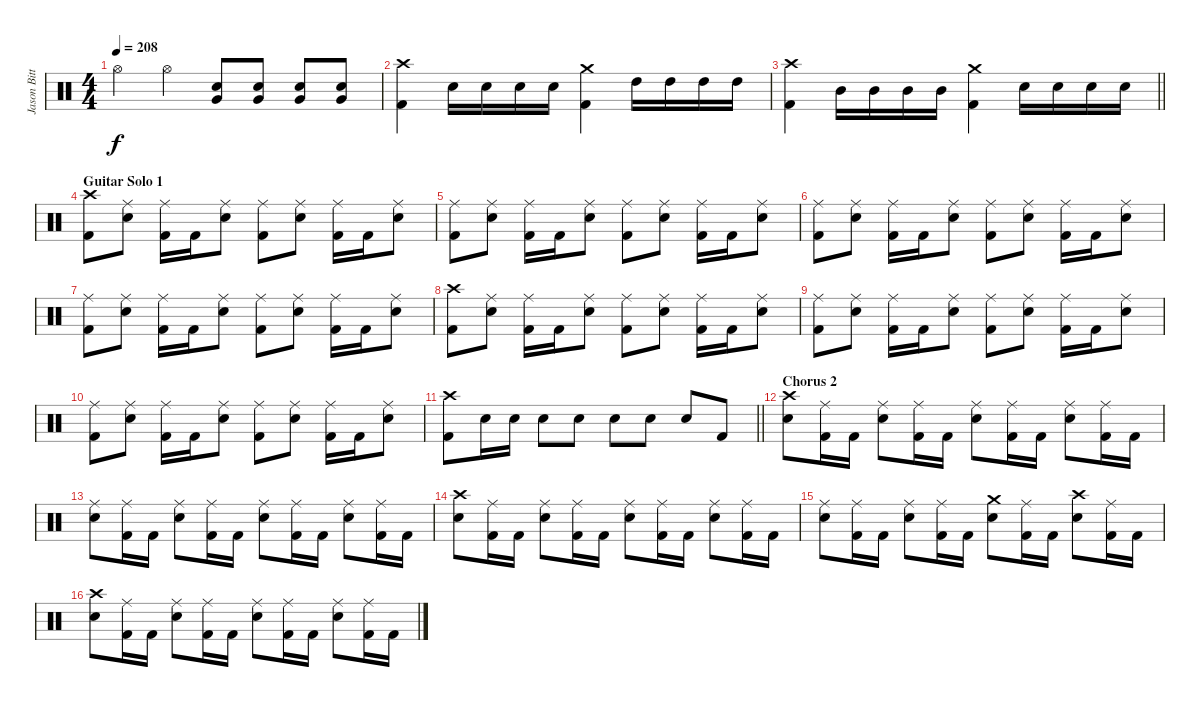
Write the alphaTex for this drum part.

\track ("Jason Bittner" "Jason Bitt") {instrument percussion}
\staff {score}
\articulation defaults
\ts (4 4)
\tempo 208
\clef neutral
\ks c "Hi-Hat (open)".4{dy f} "Hi-Hat (open)".4
("Electric Snare (hit)" "Very Low Tom (hit)").8 ("Electric Snare (hit)" "Very Low Tom (hit)").8 ("Electric Snare (hit)" "Very Low Tom (hit)").8 ("Electric Snare (hit)" "Very Low Tom (hit)").8 |
("Crash high (hit)" "Kick (hit) 2").4 "Electric Snare (hit)".16 "Electric Snare (hit)".16 "Electric Snare (hit)".16 "Electric Snare (hit)".16 ("Crash medium (hit)" "Kick (hit) 2").4 "High Tom (hit)".16 "High Tom (hit)".16 "High Tom (hit)".16 "High Tom (hit)".16 |
\barLineRight lightlight
("Crash high (hit)" "Kick (hit) 2").4 "Mid Tom (hit)".16 "Mid Tom (hit)".16 "Mid Tom (hit)".16 "Mid Tom (hit)".16 ("Crash medium (hit)" "Kick (hit) 2").4 "Electric Snare (hit)".16 "Electric Snare (hit)".16 "Electric Snare (hit)".16 "Electric Snare (hit)".16 |
\section ("" "Guitar Solo 1")
("Crash high (hit)" "Kick (hit) 2").8 ("Ride (middle)" "Electric Snare (hit)").8 ("Ride (middle)" "Kick (hit) 2").16 "Kick (hit) 2".16 ("Ride (middle)" "Electric Snare (hit)").8 ("Ride (middle)" "Kick (hit) 2").8 ("Ride (middle)" "Electric Snare (hit)").8 ("Ride (middle)" "Kick (hit) 2").16 "Kick (hit) 2".16 ("Ride (middle)" "Electric Snare (hit)").8 |
("Ride (middle)" "Kick (hit) 2").8 ("Ride (middle)" "Electric Snare (hit)").8 ("Ride (middle)" "Kick (hit) 2").16 "Kick (hit) 2".16 ("Ride (middle)" "Electric Snare (hit)").8 ("Ride (middle)" "Kick (hit) 2").8 ("Ride (middle)" "Electric Snare (hit)").8 ("Ride (middle)" "Kick (hit) 2").16 "Kick (hit) 2".16 ("Ride (middle)" "Electric Snare (hit)").8 |
("Ride (middle)" "Kick (hit) 2").8 ("Ride (middle)" "Electric Snare (hit)").8 ("Ride (middle)" "Kick (hit) 2").16 "Kick (hit) 2".16 ("Ride (middle)" "Electric Snare (hit)").8 ("Ride (middle)" "Kick (hit) 2").8 ("Ride (middle)" "Electric Snare (hit)").8 ("Ride (middle)" "Kick (hit) 2").16 "Kick (hit) 2".16 ("Ride (middle)" "Electric Snare (hit)").8 |
("Ride (middle)" "Kick (hit) 2").8 ("Ride (middle)" "Electric Snare (hit)").8 ("Ride (middle)" "Kick (hit) 2").16 "Kick (hit) 2".16 ("Ride (middle)" "Electric Snare (hit)").8 ("Ride (middle)" "Kick (hit) 2").8 ("Ride (middle)" "Electric Snare (hit)").8 ("Ride (middle)" "Kick (hit) 2").16 "Kick (hit) 2".16 ("Ride (middle)" "Electric Snare (hit)").8 |
("Crash high (hit)" "Kick (hit) 2").8 ("Ride (middle)" "Electric Snare (hit)").8 ("Ride (middle)" "Kick (hit) 2").16 "Kick (hit) 2".16 ("Ride (middle)" "Electric Snare (hit)").8 ("Ride (middle)" "Kick (hit) 2").8 ("Ride (middle)" "Electric Snare (hit)").8 ("Ride (middle)" "Kick (hit) 2").16 "Kick (hit) 2".16 ("Ride (middle)" "Electric Snare (hit)").8 |
("Ride (middle)" "Kick (hit) 2").8 ("Ride (middle)" "Electric Snare (hit)").8 ("Ride (middle)" "Kick (hit) 2").16 "Kick (hit) 2".16 ("Ride (middle)" "Electric Snare (hit)").8 ("Ride (middle)" "Kick (hit) 2").8 ("Ride (middle)" "Electric Snare (hit)").8 ("Ride (middle)" "Kick (hit) 2").16 "Kick (hit) 2".16 ("Ride (middle)" "Electric Snare (hit)").8 |
("Ride (middle)" "Kick (hit) 2").8 ("Ride (middle)" "Electric Snare (hit)").8 ("Ride (middle)" "Kick (hit) 2").16 "Kick (hit) 2".16 ("Ride (middle)" "Electric Snare (hit)").8 ("Ride (middle)" "Kick (hit) 2").8 ("Ride (middle)" "Electric Snare (hit)").8 ("Ride (middle)" "Kick (hit) 2").16 "Kick (hit) 2".16 ("Ride (middle)" "Electric Snare (hit)").8 |
\barLineRight lightlight
("Crash high (hit)" "Kick (hit) 2").8 "Electric Snare (hit)".16 "Electric Snare (hit)".16 "Electric Snare (hit)".8 "Electric Snare (hit)".8 "Electric Snare (hit)".8 "Electric Snare (hit)".8 "Electric Snare (hit)".8 "Kick (hit) 2".8 |
\section ("" "Chorus 2")
("Crash high (hit)" "Electric Snare (hit)").8 ("Ride (middle)" "Kick (hit) 2").16 "Kick (hit) 2".16 ("Ride (middle)" "Electric Snare (hit)").8 ("Ride (middle)" "Kick (hit) 2").16 "Kick (hit) 2".16 ("Ride (middle)" "Electric Snare (hit)").8 ("Ride (middle)" "Kick (hit) 2").16 "Kick (hit) 2".16 ("Ride (middle)" "Electric Snare (hit)").8 ("Ride (middle)" "Kick (hit) 2").16 "Kick (hit) 2".16 |
("Ride (middle)" "Electric Snare (hit)").8 ("Ride (middle)" "Kick (hit) 2").16 "Kick (hit) 2".16 ("Ride (middle)" "Electric Snare (hit)").8 ("Ride (middle)" "Kick (hit) 2").16 "Kick (hit) 2".16 ("Ride (middle)" "Electric Snare (hit)").8 ("Ride (middle)" "Kick (hit) 2").16 "Kick (hit) 2".16 ("Ride (middle)" "Electric Snare (hit)").8 ("Ride (middle)" "Kick (hit) 2").16 "Kick (hit) 2".16 |
("Crash high (hit)" "Electric Snare (hit)").8 ("Ride (middle)" "Kick (hit) 2").16 "Kick (hit) 2".16 ("Ride (middle)" "Electric Snare (hit)").8 ("Ride (middle)" "Kick (hit) 2").16 "Kick (hit) 2".16 ("Ride (middle)" "Electric Snare (hit)").8 ("Ride (middle)" "Kick (hit) 2").16 "Kick (hit) 2".16 ("Ride (middle)" "Electric Snare (hit)").8 ("Ride (middle)" "Kick (hit) 2").16 "Kick (hit) 2".16 |
("Ride (middle)" "Electric Snare (hit)").8 ("Ride (middle)" "Kick (hit) 2").16 "Kick (hit) 2".16 ("Ride (middle)" "Electric Snare (hit)").8 ("Ride (middle)" "Kick (hit) 2").16 "Kick (hit) 2".16 ("Crash medium (hit)" "Electric Snare (hit)").8 ("Ride (middle)" "Kick (hit) 2").16 "Kick (hit) 2".16 ("Crash high (hit)" "Electric Snare (hit)").8 ("Ride (middle)" "Kick (hit) 2").16 "Kick (hit) 2".16 |
("Crash high (hit)" "Electric Snare (hit)").8 ("Ride (middle)" "Kick (hit) 2").16 "Kick (hit) 2".16 ("Ride (middle)" "Electric Snare (hit)").8 ("Ride (middle)" "Kick (hit) 2").16 "Kick (hit) 2".16 ("Ride (middle)" "Electric Snare (hit)").8 ("Ride (middle)" "Kick (hit) 2").16 "Kick (hit) 2".16 ("Ride (middle)" "Electric Snare (hit)").8 ("Ride (middle)" "Kick (hit) 2").16 "Kick (hit) 2".16
